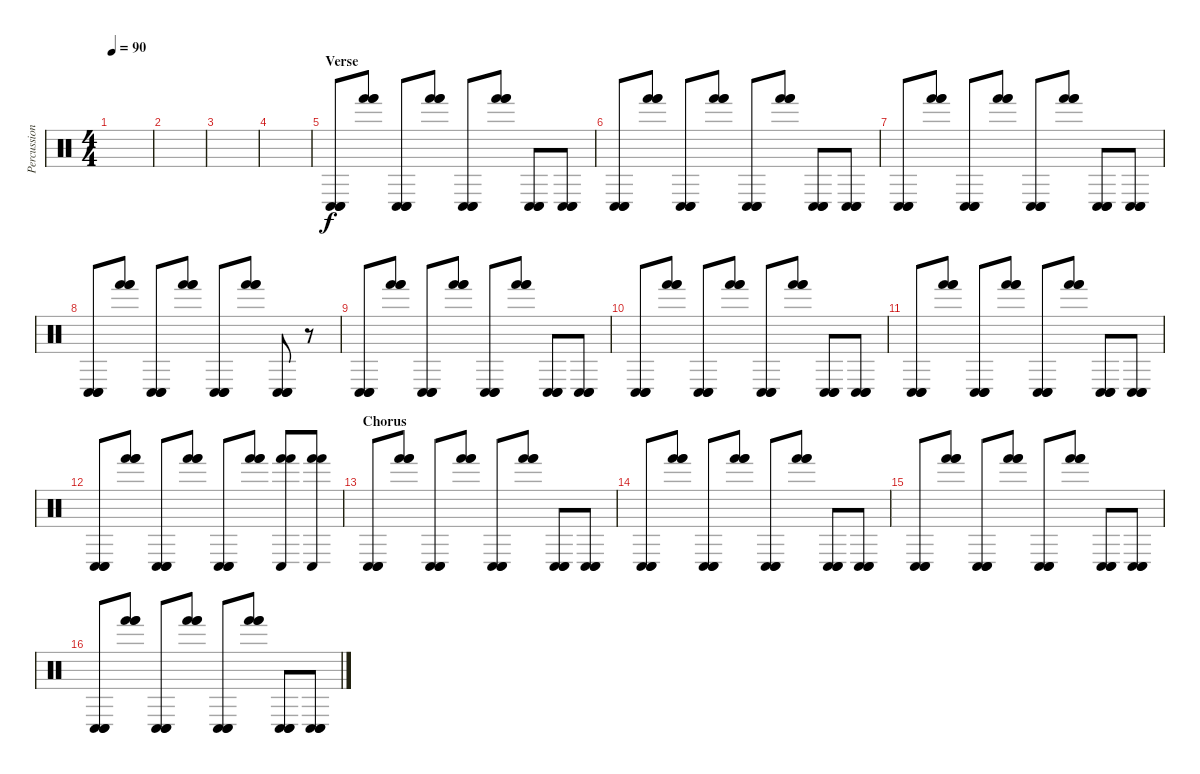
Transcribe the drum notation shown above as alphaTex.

\track ("Percussion" "Percussion") {instrument percussion}
\staff {score}
\articulation defaults
\ts (4 4)
\tempo 90
\clef neutral
\ks c
|
|
|
|
\section ("" "Verse")
("Conga low (hit)" "Conga low (hit)" "Conga low (hit)").8 ("Hand (hit)" "Hand (hit)" "Hand (hit)").8 ("Conga low (hit)" "Conga low (hit)" "Conga low (hit)").8 ("Hand (hit)" "Hand (hit)" "Hand (hit)").8 ("Conga low (hit)" "Conga low (hit)" "Conga low (hit)").8 ("Hand (hit)" "Hand (hit)" "Hand (hit)").8 ("Conga low (hit)" "Conga low (hit)" "Conga low (hit)").8 ("Conga low (hit)" "Conga low (hit)" "Conga low (hit)").8 |
("Conga low (hit)" "Conga low (hit)" "Conga low (hit)").8 ("Hand (hit)" "Hand (hit)" "Hand (hit)").8 ("Conga low (hit)" "Conga low (hit)" "Conga low (hit)").8 ("Hand (hit)" "Hand (hit)" "Hand (hit)").8 ("Conga low (hit)" "Conga low (hit)" "Conga low (hit)").8 ("Hand (hit)" "Hand (hit)" "Hand (hit)").8 ("Conga low (hit)" "Conga low (hit)" "Conga low (hit)").8 ("Conga low (hit)" "Conga low (hit)" "Conga low (hit)").8 |
("Conga low (hit)" "Conga low (hit)" "Conga low (hit)").8 ("Hand (hit)" "Hand (hit)" "Hand (hit)").8 ("Conga low (hit)" "Conga low (hit)" "Conga low (hit)").8 ("Hand (hit)" "Hand (hit)" "Hand (hit)").8 ("Conga low (hit)" "Conga low (hit)" "Conga low (hit)").8 ("Hand (hit)" "Hand (hit)" "Hand (hit)").8 ("Conga low (hit)" "Conga low (hit)" "Conga low (hit)").8 ("Conga low (hit)" "Conga low (hit)" "Conga low (hit)").8 |
("Conga low (hit)" "Conga low (hit)" "Conga low (hit)").8 ("Hand (hit)" "Hand (hit)" "Hand (hit)").8 ("Conga low (hit)" "Conga low (hit)" "Conga low (hit)").8 ("Hand (hit)" "Hand (hit)" "Hand (hit)").8 ("Conga low (hit)" "Conga low (hit)" "Conga low (hit)").8 ("Hand (hit)" "Hand (hit)" "Hand (hit)").8 ("Conga low (hit)" "Conga low (hit)" "Conga low (hit)").8 r.8 |
("Conga low (hit)" "Conga low (hit)" "Conga low (hit)").8 ("Hand (hit)" "Hand (hit)" "Hand (hit)").8 ("Conga low (hit)" "Conga low (hit)" "Conga low (hit)").8 ("Hand (hit)" "Hand (hit)" "Hand (hit)").8 ("Conga low (hit)" "Conga low (hit)" "Conga low (hit)").8 ("Hand (hit)" "Hand (hit)" "Hand (hit)").8 ("Conga low (hit)" "Conga low (hit)" "Conga low (hit)").8 ("Conga low (hit)" "Conga low (hit)" "Conga low (hit)").8 |
("Conga low (hit)" "Conga low (hit)" "Conga low (hit)").8 ("Hand (hit)" "Hand (hit)" "Hand (hit)").8 ("Conga low (hit)" "Conga low (hit)" "Conga low (hit)").8 ("Hand (hit)" "Hand (hit)" "Hand (hit)").8 ("Conga low (hit)" "Conga low (hit)" "Conga low (hit)").8 ("Hand (hit)" "Hand (hit)" "Hand (hit)").8 ("Conga low (hit)" "Conga low (hit)" "Conga low (hit)").8 ("Conga low (hit)" "Conga low (hit)" "Conga low (hit)").8 |
("Conga low (hit)" "Conga low (hit)" "Conga low (hit)").8 ("Hand (hit)" "Hand (hit)" "Hand (hit)").8 ("Conga low (hit)" "Conga low (hit)" "Conga low (hit)").8 ("Hand (hit)" "Hand (hit)" "Hand (hit)").8 ("Conga low (hit)" "Conga low (hit)" "Conga low (hit)").8 ("Hand (hit)" "Hand (hit)" "Hand (hit)").8 ("Conga low (hit)" "Conga low (hit)" "Conga low (hit)").8 ("Conga low (hit)" "Conga low (hit)" "Conga low (hit)").8 |
("Conga low (hit)" "Conga low (hit)" "Conga low (hit)").8 ("Hand (hit)" "Hand (hit)" "Hand (hit)").8 ("Conga low (hit)" "Conga low (hit)" "Conga low (hit)").8 ("Hand (hit)" "Hand (hit)" "Hand (hit)").8 ("Conga low (hit)" "Conga low (hit)" "Conga low (hit)").8 ("Hand (hit)" "Hand (hit)" "Hand (hit)").8 ("Hand (hit)" "Hand (hit)" "Conga low (hit)").8 ("Hand (hit)" "Hand (hit)" "Conga low (hit)").8 |
\section ("" "Chorus")
("Conga low (hit)" "Conga low (hit)" "Conga low (hit)").8 ("Hand (hit)" "Hand (hit)" "Hand (hit)").8 ("Conga low (hit)" "Conga low (hit)" "Conga low (hit)").8 ("Hand (hit)" "Hand (hit)" "Hand (hit)").8 ("Conga low (hit)" "Conga low (hit)" "Conga low (hit)").8 ("Hand (hit)" "Hand (hit)" "Hand (hit)").8 ("Conga low (hit)" "Conga low (hit)" "Conga low (hit)").8 ("Conga low (hit)" "Conga low (hit)" "Conga low (hit)").8 |
("Conga low (hit)" "Conga low (hit)" "Conga low (hit)").8 ("Hand (hit)" "Hand (hit)" "Hand (hit)").8 ("Conga low (hit)" "Conga low (hit)" "Conga low (hit)").8 ("Hand (hit)" "Hand (hit)" "Hand (hit)").8 ("Conga low (hit)" "Conga low (hit)" "Conga low (hit)").8 ("Hand (hit)" "Hand (hit)" "Hand (hit)").8 ("Conga low (hit)" "Conga low (hit)" "Conga low (hit)").8 ("Conga low (hit)" "Conga low (hit)" "Conga low (hit)").8 |
("Conga low (hit)" "Conga low (hit)" "Conga low (hit)").8 ("Hand (hit)" "Hand (hit)" "Hand (hit)").8 ("Conga low (hit)" "Conga low (hit)" "Conga low (hit)").8 ("Hand (hit)" "Hand (hit)" "Hand (hit)").8 ("Conga low (hit)" "Conga low (hit)" "Conga low (hit)").8 ("Hand (hit)" "Hand (hit)" "Hand (hit)").8 ("Conga low (hit)" "Conga low (hit)" "Conga low (hit)").8 ("Conga low (hit)" "Conga low (hit)" "Conga low (hit)").8 |
("Conga low (hit)" "Conga low (hit)" "Conga low (hit)").8 ("Hand (hit)" "Hand (hit)" "Hand (hit)").8 ("Conga low (hit)" "Conga low (hit)" "Conga low (hit)").8 ("Hand (hit)" "Hand (hit)" "Hand (hit)").8 ("Conga low (hit)" "Conga low (hit)" "Conga low (hit)").8 ("Hand (hit)" "Hand (hit)" "Hand (hit)").8 ("Conga low (hit)" "Conga low (hit)" "Conga low (hit)").8 ("Conga low (hit)" "Conga low (hit)" "Conga low (hit)").8
